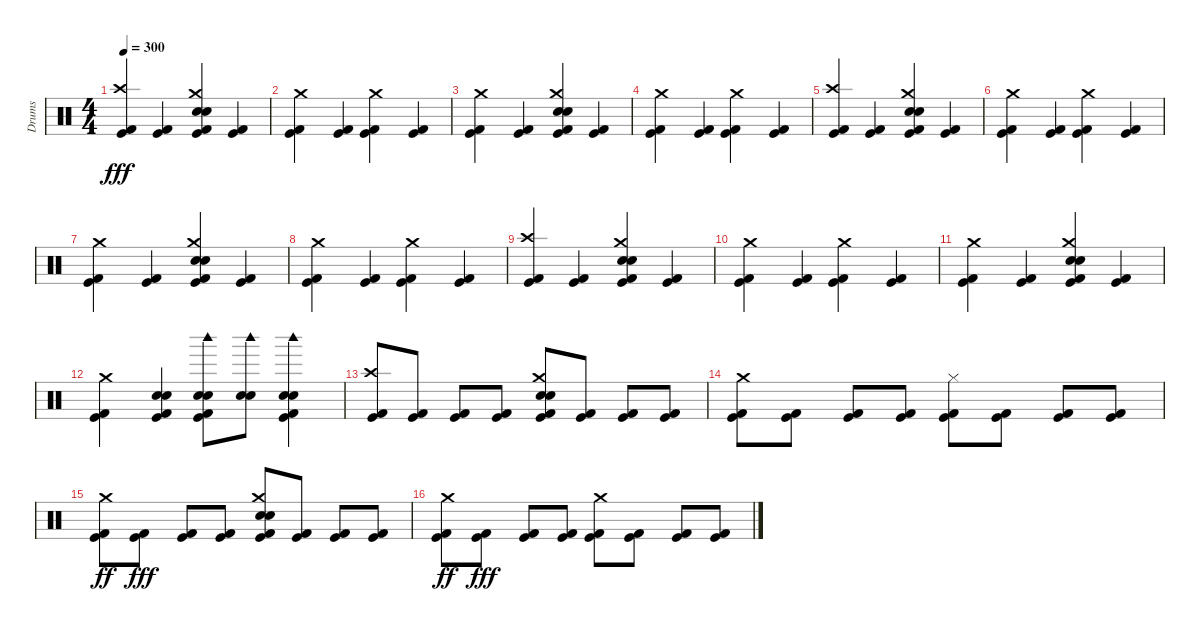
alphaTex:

\track ("Drums" "Drums") {instrument percussion}
\staff {score}
\articulation defaults
\ts (4 4)
\tempo 300
\clef neutral
\ks c
("Kick (hit) 2" "Crash high (hit)" "Kick (hit)").4{dy fff} ("Kick (hit) 2" "Kick (hit)").4 ("Kick (hit) 2" "Electric Snare (hit)" "Crash medium (hit)" "Snare (hit) 2" "Kick (hit)").4 ("Kick (hit) 2" "Kick (hit)").4 |
("Kick (hit) 2" "Crash medium (hit)" "Kick (hit)").4 ("Kick (hit) 2" "Kick (hit)").4 ("Kick (hit) 2" "Crash medium (hit)" "Kick (hit)").4 ("Kick (hit) 2" "Kick (hit)").4 |
("Kick (hit) 2" "Kick (hit)" "Crash medium (hit)").4 ("Kick (hit) 2" "Kick (hit)").4 ("Kick (hit) 2" "Snare (hit) 2" "Electric Snare (hit)" "Crash medium (hit)" "Kick (hit)").4 ("Kick (hit) 2" "Kick (hit)").4 |
("Kick (hit) 2" "Crash medium (hit)" "Kick (hit)").4 ("Kick (hit) 2" "Kick (hit)").4 ("Kick (hit) 2" "Kick (hit)" "Crash medium (hit)").4 ("Kick (hit) 2" "Kick (hit)").4 |
("Kick (hit) 2" "Crash high (hit)" "Kick (hit)").4 ("Kick (hit) 2" "Kick (hit)").4 ("Kick (hit) 2" "Crash medium (hit)" "Electric Snare (hit)" "Snare (hit) 2" "Kick (hit)").4 ("Kick (hit) 2" "Kick (hit)").4 |
("Kick (hit) 2" "Kick (hit)" "Crash medium (hit)").4 ("Kick (hit) 2" "Kick (hit)").4 ("Kick (hit) 2" "Kick (hit)" "Crash medium (hit)").4 ("Kick (hit) 2" "Kick (hit)").4 |
("Kick (hit) 2" "Crash medium (hit)" "Kick (hit)").4 ("Kick (hit) 2" "Kick (hit)").4 ("Kick (hit) 2" "Electric Snare (hit)" "Snare (hit) 2" "Crash medium (hit)" "Kick (hit)").4 ("Kick (hit) 2" "Kick (hit)").4 |
("Kick (hit) 2" "Kick (hit)" "Crash medium (hit)").4 ("Kick (hit) 2" "Kick (hit)").4 ("Kick (hit) 2" "Kick (hit)" "Crash medium (hit)").4 ("Kick (hit) 2" "Kick (hit)").4 |
("Kick (hit) 2" "Crash high (hit)" "Kick (hit)").4 ("Kick (hit) 2" "Kick (hit)").4 ("Kick (hit) 2" "Electric Snare (hit)" "Crash medium (hit)" "Snare (hit) 2" "Kick (hit)").4 ("Kick (hit) 2" "Kick (hit)").4 |
("Kick (hit) 2" "Crash medium (hit)" "Kick (hit)").4 ("Kick (hit) 2" "Kick (hit)").4 ("Kick (hit) 2" "Crash medium (hit)" "Kick (hit)").4 ("Kick (hit) 2" "Kick (hit)").4 |
("Kick (hit) 2" "Kick (hit)" "Crash medium (hit)").4 ("Kick (hit) 2" "Kick (hit)").4 ("Kick (hit) 2" "Snare (hit) 2" "Electric Snare (hit)" "Crash medium (hit)" "Kick (hit)").4 ("Kick (hit) 2" "Kick (hit)").4 |
("Kick (hit) 2" "Kick (hit)" "Crash medium (hit)").4 ("Kick (hit) 2" "Electric Snare (hit)" "Snare (hit) 2" "Kick (hit)").4 ("Kick (hit) 2" "Woodblock high (hit)" "Snare (hit) 2" "Electric Snare (hit)" "Kick (hit)").8 ("Woodblock high (hit)" "Snare (hit) 2" "Electric Snare (hit)").8 ("Kick (hit) 2" "Woodblock high (hit)" "Snare (hit) 2" "Electric Snare (hit)" "Kick (hit)").4 |
("Kick (hit) 2" "Kick (hit)" "Crash high (hit)").8 ("Kick (hit) 2" "Kick (hit)").8 ("Kick (hit) 2" "Kick (hit)").8 ("Kick (hit) 2" "Kick (hit)").8 ("Kick (hit) 2" "Snare (hit) 2" "Electric Snare (hit)" "Crash medium (hit)" "Kick (hit)").8 ("Kick (hit) 2" "Kick (hit)").8 ("Kick (hit) 2" "Kick (hit)").8 ("Kick (hit) 2" "Kick (hit)").8 |
("Kick (hit) 2" "Crash medium (hit)" "Kick (hit)").8 ("Kick (hit) 2" "Kick (hit)").8 ("Kick (hit) 2" "Kick (hit)").8 ("Kick (hit) 2" "Kick (hit)").8 ("Kick (hit) 2" "Kick (hit)" "Hi-Hat (closed)").8 ("Kick (hit) 2" "Kick (hit)").8 ("Kick (hit) 2" "Kick (hit)").8 ("Kick (hit) 2" "Kick (hit)").8 |
("Kick (hit) 2" "Kick (hit)" "Crash medium (hit)").8{dy ff} ("Kick (hit) 2" "Kick (hit)").8{dy fff} ("Kick (hit) 2" "Kick (hit)").8 ("Kick (hit) 2" "Kick (hit)").8 ("Kick (hit) 2" "Crash medium (hit)" "Snare (hit) 2" "Electric Snare (hit)" "Kick (hit)").8 ("Kick (hit) 2" "Kick (hit)").8 ("Kick (hit) 2" "Kick (hit)").8 ("Kick (hit) 2" "Kick (hit)").8 |
("Kick (hit) 2" "Kick (hit)" "Crash medium (hit)").8{dy ff} ("Kick (hit) 2" "Kick (hit)").8{dy fff} ("Kick (hit) 2" "Kick (hit)").8 ("Kick (hit) 2" "Kick (hit)").8 ("Kick (hit) 2" "Crash medium (hit)" "Kick (hit)").8 ("Kick (hit) 2" "Kick (hit)").8 ("Kick (hit) 2" "Kick (hit)").8 ("Kick (hit) 2" "Kick (hit)").8
